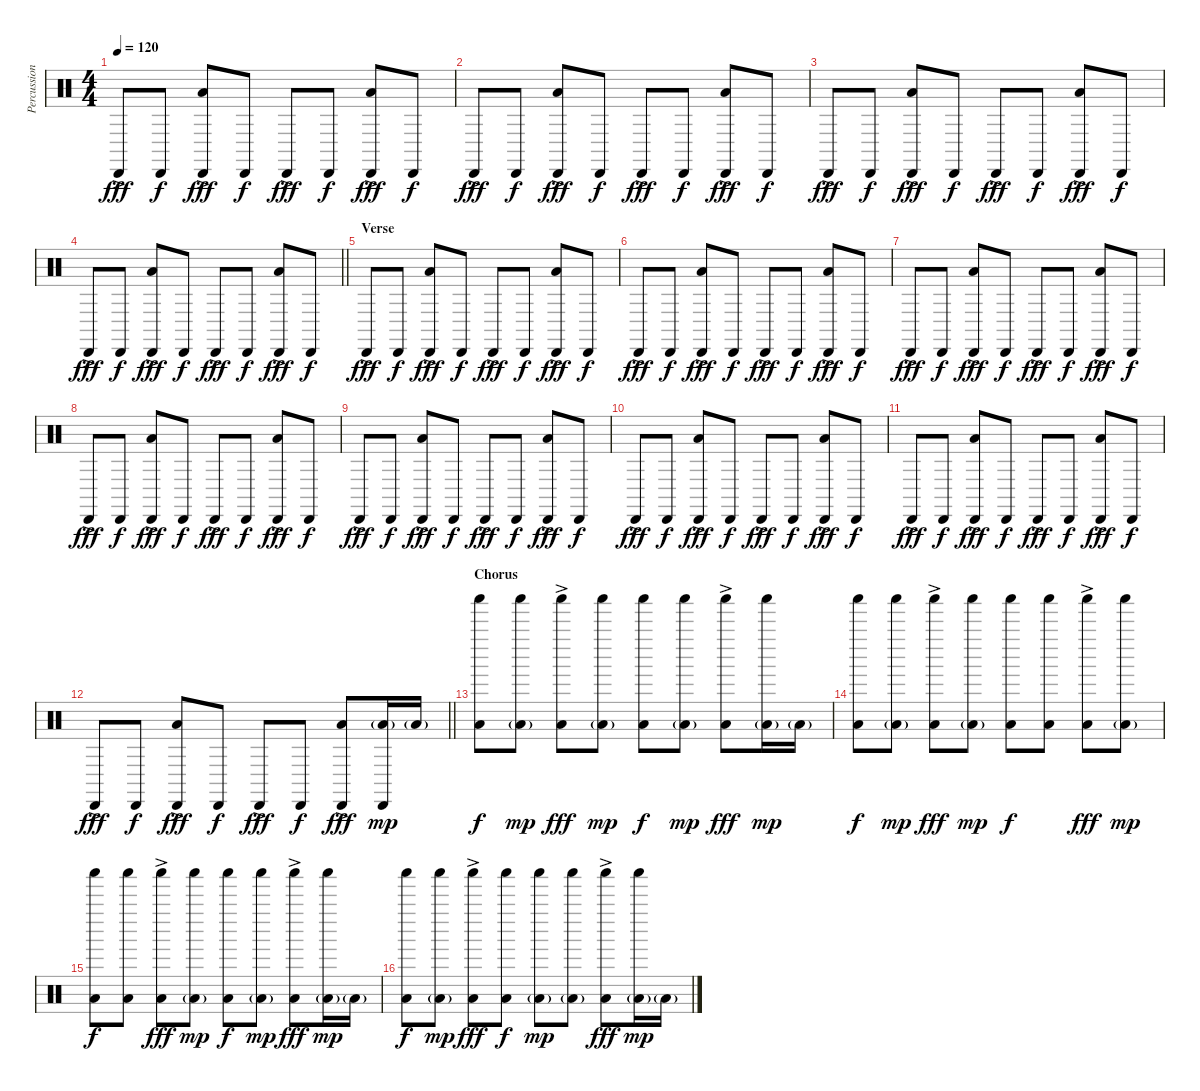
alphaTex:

\track ("Percussion" "Percussion") {instrument percussion}
\staff {score}
\articulation defaults
\ts (4 4)
\tempo 120
\clef neutral
\ks c "Cabasa (hit)"{ac}.8{dy fff} "Cabasa (hit)".8{dy f}
("Cabasa (hit)"{ac} "Low Tom (hit)").8{dy fff} "Cabasa (hit)".8{dy f} "Cabasa (hit)"{ac}.8{dy fff} "Cabasa (hit)".8{dy f} ("Cabasa (hit)"{ac} "Low Tom (hit)").8{dy fff} "Cabasa (hit)".8{dy f} |
"Cabasa (hit)"{ac}.8{dy fff} "Cabasa (hit)".8{dy f} ("Cabasa (hit)"{ac} "Low Tom (hit)").8{dy fff} "Cabasa (hit)".8{dy f} "Cabasa (hit)"{ac}.8{dy fff} "Cabasa (hit)".8{dy f} ("Cabasa (hit)"{ac} "Low Tom (hit)").8{dy fff} "Cabasa (hit)".8{dy f} |
"Cabasa (hit)"{ac}.8{dy fff} "Cabasa (hit)".8{dy f} ("Cabasa (hit)"{ac} "Low Tom (hit)").8{dy fff} "Cabasa (hit)".8{dy f} "Cabasa (hit)"{ac}.8{dy fff} "Cabasa (hit)".8{dy f} ("Cabasa (hit)"{ac} "Low Tom (hit)").8{dy fff} "Cabasa (hit)".8{dy f} |
\barLineRight lightlight "Cabasa (hit)"{ac}.8{dy fff} "Cabasa (hit)".8{dy f}
("Cabasa (hit)"{ac} "Low Tom (hit)").8{dy fff} "Cabasa (hit)".8{dy f} "Cabasa (hit)"{ac}.8{dy fff} "Cabasa (hit)".8{dy f} ("Cabasa (hit)"{ac} "Low Tom (hit)").8{dy fff} "Cabasa (hit)".8{dy f} |
\section ("" "Verse")
"Cabasa (hit)"{ac}.8{dy fff} "Cabasa (hit)".8{dy f} ("Cabasa (hit)"{ac} "Low Tom (hit)").8{dy fff} "Cabasa (hit)".8{dy f} "Cabasa (hit)"{ac}.8{dy fff} "Cabasa (hit)".8{dy f} ("Cabasa (hit)"{ac} "Low Tom (hit)").8{dy fff} "Cabasa (hit)".8{dy f} |
"Cabasa (hit)"{ac}.8{dy fff} "Cabasa (hit)".8{dy f} ("Cabasa (hit)"{ac} "Low Tom (hit)").8{dy fff} "Cabasa (hit)".8{dy f} "Cabasa (hit)"{ac}.8{dy fff} "Cabasa (hit)".8{dy f} ("Cabasa (hit)"{ac} "Low Tom (hit)").8{dy fff} "Cabasa (hit)".8{dy f} |
"Cabasa (hit)"{ac}.8{dy fff} "Cabasa (hit)".8{dy f} ("Cabasa (hit)"{ac} "Low Tom (hit)").8{dy fff} "Cabasa (hit)".8{dy f} "Cabasa (hit)"{ac}.8{dy fff} "Cabasa (hit)".8{dy f} ("Cabasa (hit)"{ac} "Low Tom (hit)").8{dy fff} "Cabasa (hit)".8{dy f} |
"Cabasa (hit)"{ac}.8{dy fff} "Cabasa (hit)".8{dy f} ("Cabasa (hit)"{ac} "Low Tom (hit)").8{dy fff} "Cabasa (hit)".8{dy f} "Cabasa (hit)"{ac}.8{dy fff} "Cabasa (hit)".8{dy f} ("Cabasa (hit)"{ac} "Low Tom (hit)").8{dy fff} "Cabasa (hit)".8{dy f} |
"Cabasa (hit)"{ac}.8{dy fff} "Cabasa (hit)".8{dy f} ("Cabasa (hit)"{ac} "Low Tom (hit)").8{dy fff} "Cabasa (hit)".8{dy f} "Cabasa (hit)"{ac}.8{dy fff} "Cabasa (hit)".8{dy f} ("Cabasa (hit)"{ac} "Low Tom (hit)").8{dy fff} "Cabasa (hit)".8{dy f} |
"Cabasa (hit)"{ac}.8{dy fff} "Cabasa (hit)".8{dy f} ("Cabasa (hit)"{ac} "Low Tom (hit)").8{dy fff} "Cabasa (hit)".8{dy f} "Cabasa (hit)"{ac}.8{dy fff} "Cabasa (hit)".8{dy f} ("Cabasa (hit)"{ac} "Low Tom (hit)").8{dy fff} "Cabasa (hit)".8{dy f} |
"Cabasa (hit)"{ac}.8{dy fff} "Cabasa (hit)".8{dy f} ("Cabasa (hit)"{ac} "Low Tom (hit)").8{dy fff} "Cabasa (hit)".8{dy f} "Cabasa (hit)"{ac}.8{dy fff} "Cabasa (hit)".8{dy f} ("Cabasa (hit)"{ac} "Low Tom (hit)").8{dy fff} "Cabasa (hit)".8{dy f} |
\barLineRight lightlight "Cabasa (hit)"{ac}.8{dy fff} "Cabasa (hit)".8{dy f}
("Cabasa (hit)"{ac} "Low Tom (hit)").8{dy fff} "Cabasa (hit)".8{dy f} "Cabasa (hit)"{ac}.8{dy fff} "Cabasa (hit)".8{dy f} ("Cabasa (hit)"{ac} "Low Tom (hit)").8{dy fff} ("Cabasa (hit)" "Low Tom (hit)"{g}).16{dy mp} "Low Tom (hit)"{g}.16 |
\section ("" "Chorus")
("Shaker (hit)" "Low Tom (hit)").8{dy f} ("Shaker (hit)" "Low Tom (hit)"{g}).8{dy mp} ("Shaker (hit)" "Low Tom (hit)"{ac}).8{dy fff} ("Shaker (hit)" "Low Tom (hit)"{g}).8{dy mp} ("Shaker (hit)" "Low Tom (hit)").8{dy f} ("Shaker (hit)" "Low Tom (hit)"{g}).8{dy mp} ("Shaker (hit)" "Low Tom (hit)"{ac}).8{dy fff} ("Shaker (hit)" "Low Tom (hit)"{g}).16{dy mp} "Low Tom (hit)"{g}.16 |
("Shaker (hit)" "Low Tom (hit)").8{dy f} ("Shaker (hit)" "Low Tom (hit)"{g}).8{dy mp} ("Shaker (hit)" "Low Tom (hit)"{ac}).8{dy fff} ("Shaker (hit)" "Low Tom (hit)"{g}).8{dy mp} ("Shaker (hit)" "Low Tom (hit)").8{dy f} ("Shaker (hit)" "Low Tom (hit)").8 ("Shaker (hit)" "Low Tom (hit)"{ac}).8{dy fff} ("Shaker (hit)" "Low Tom (hit)"{g}).8{dy mp} |
("Shaker (hit)" "Low Tom (hit)").8{dy f} ("Shaker (hit)" "Low Tom (hit)").8 ("Shaker (hit)" "Low Tom (hit)"{ac}).8{dy fff} ("Shaker (hit)" "Low Tom (hit)"{g}).8{dy mp} ("Shaker (hit)" "Low Tom (hit)").8{dy f} ("Shaker (hit)" "Low Tom (hit)"{g}).8{dy mp} ("Shaker (hit)" "Low Tom (hit)"{ac}).8{dy fff} ("Shaker (hit)" "Low Tom (hit)"{g}).16{dy mp} "Low Tom (hit)"{g}.16 |
("Shaker (hit)" "Low Tom (hit)").8{dy f} ("Shaker (hit)" "Low Tom (hit)"{g}).8{dy mp} ("Shaker (hit)" "Low Tom (hit)"{ac}).8{dy fff} ("Shaker (hit)" "Low Tom (hit)").8{dy f} ("Shaker (hit)" "Low Tom (hit)"{g}).8{dy mp} ("Shaker (hit)" "Low Tom (hit)"{g}).8 ("Shaker (hit)" "Low Tom (hit)"{ac}).8{dy fff} ("Shaker (hit)" "Low Tom (hit)"{g}).16{dy mp} "Low Tom (hit)"{g}.16
